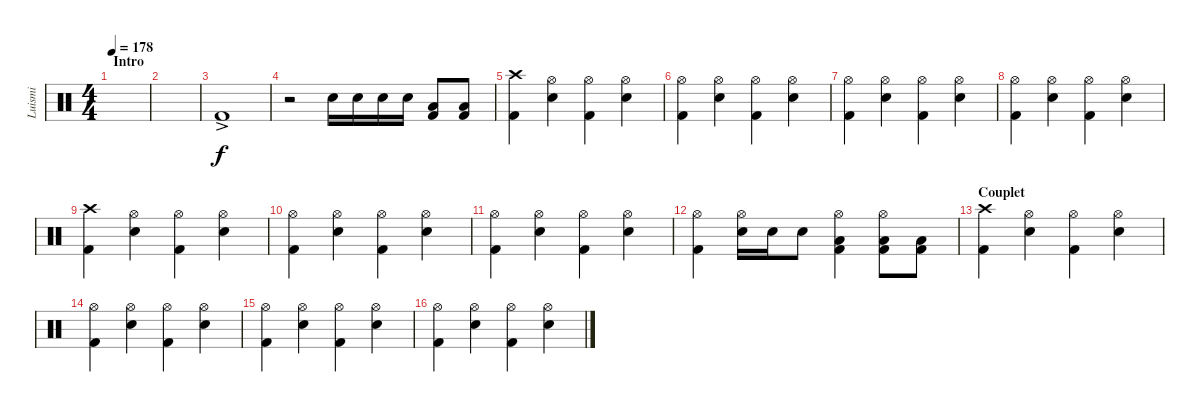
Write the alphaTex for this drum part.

\track ("Luismi" "Luismi") {instrument percussion}
\staff {score}
\articulation defaults
\ts (4 4)
\section ("" "Intro")
\tempo 178
\clef neutral
\ks c
|
|
"Kick (hit) 2"{ac}.1 |
r.2 "Snare (hit) 2".16{dy f} "Snare (hit) 2".16 "Snare (hit) 2".16 "Snare (hit) 2".16 ("Low Tom (hit)" "Kick (hit) 2").8 ("Low Floor Tom (hit)" "Kick (hit) 2").8 |
("Crash high (hit)" "Kick (hit) 2").4 ("Hi-Hat (open)" "Snare (hit) 2").4 ("Hi-Hat (open)" "Kick (hit) 2").4 ("Hi-Hat (open)" "Snare (hit) 2").4 |
("Hi-Hat (open)" "Kick (hit) 2").4 ("Hi-Hat (open)" "Snare (hit) 2").4 ("Hi-Hat (open)" "Kick (hit) 2").4 ("Hi-Hat (open)" "Snare (hit) 2").4 |
("Hi-Hat (open)" "Kick (hit) 2").4 ("Hi-Hat (open)" "Snare (hit) 2").4 ("Hi-Hat (open)" "Kick (hit) 2").4 ("Hi-Hat (open)" "Snare (hit) 2").4 |
("Hi-Hat (open)" "Kick (hit) 2").4 ("Hi-Hat (open)" "Snare (hit) 2").4 ("Hi-Hat (open)" "Kick (hit) 2").4 ("Hi-Hat (open)" "Snare (hit) 2").4 |
("Crash high (hit)" "Kick (hit) 2").4 ("Hi-Hat (open)" "Snare (hit) 2").4 ("Hi-Hat (open)" "Kick (hit) 2").4 ("Hi-Hat (open)" "Snare (hit) 2").4 |
("Hi-Hat (open)" "Kick (hit) 2").4 ("Hi-Hat (open)" "Snare (hit) 2").4 ("Hi-Hat (open)" "Kick (hit) 2").4 ("Hi-Hat (open)" "Snare (hit) 2").4 |
("Hi-Hat (open)" "Kick (hit) 2").4 ("Hi-Hat (open)" "Snare (hit) 2").4 ("Hi-Hat (open)" "Kick (hit) 2").4 ("Hi-Hat (open)" "Snare (hit) 2").4 |
("Hi-Hat (open)" "Kick (hit) 2").4 ("Hi-Hat (open)" "Snare (hit) 2").16 "Snare (hit) 2".16 "Snare (hit) 2".8 ("Hi-Hat (open)" "Low Floor Tom (hit)" "Kick (hit) 2").4 ("Hi-Hat (open)" "Low Tom (hit)" "Kick (hit) 2").8 ("Low Floor Tom (hit)" "Kick (hit) 2").8 |
\section ("" "Couplet")
("Crash high (hit)" "Kick (hit) 2").4 ("Hi-Hat (open)" "Snare (hit) 2").4 ("Hi-Hat (open)" "Kick (hit) 2").4 ("Hi-Hat (open)" "Snare (hit) 2").4 |
("Hi-Hat (open)" "Kick (hit) 2").4 ("Hi-Hat (open)" "Snare (hit) 2").4 ("Hi-Hat (open)" "Kick (hit) 2").4 ("Hi-Hat (open)" "Snare (hit) 2").4 |
("Hi-Hat (open)" "Kick (hit) 2").4 ("Hi-Hat (open)" "Snare (hit) 2").4 ("Hi-Hat (open)" "Kick (hit) 2").4 ("Hi-Hat (open)" "Snare (hit) 2").4 |
("Hi-Hat (open)" "Kick (hit) 2").4 ("Hi-Hat (open)" "Snare (hit) 2").4 ("Hi-Hat (open)" "Kick (hit) 2").4 ("Hi-Hat (open)" "Snare (hit) 2").4
